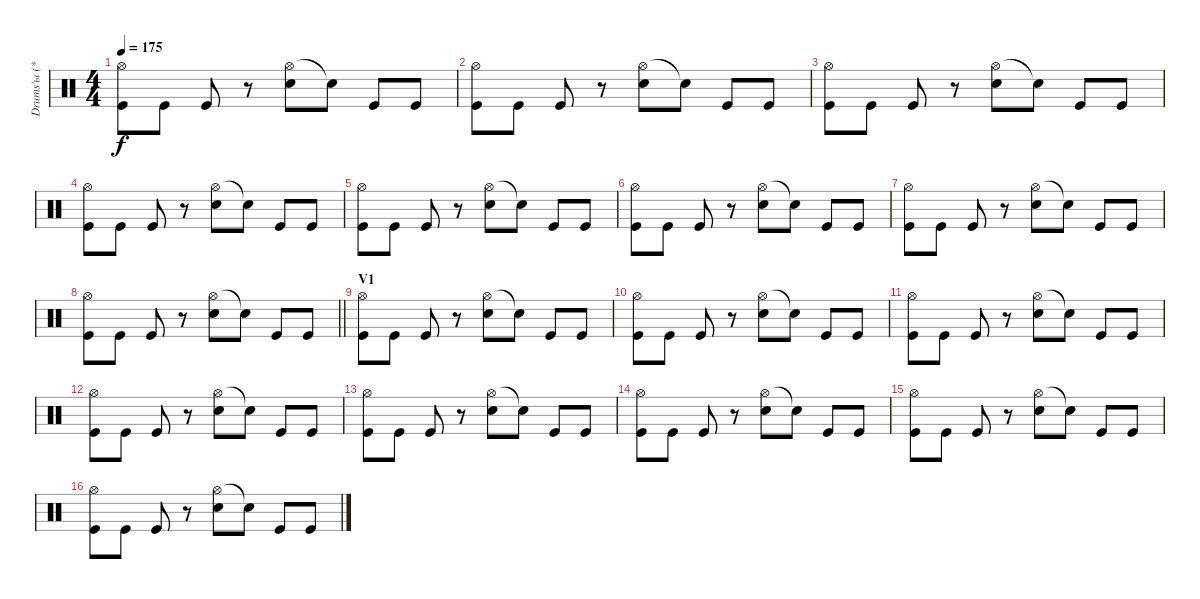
\track ("Drums'ы (***)" "Drums'ы (*") {instrument percussion}
\staff {score}
\articulation defaults
\ts (4 4)
\tempo 175
\clef neutral
\ks c
("Hi-Hat (open)" "Kick (hit)").8{dy f} "Kick (hit)".8 "Kick (hit)".8 r.8 ("Hi-Hat (open)" "Electric Snare (hit)").8 "Snare (hit)"{t}.8 "Kick (hit)".8 "Kick (hit)".8 |
("Hi-Hat (open)" "Kick (hit)").8 "Kick (hit)".8 "Kick (hit)".8 r.8 ("Hi-Hat (open)" "Electric Snare (hit)").8 "Snare (hit)"{t}.8 "Kick (hit)".8 "Kick (hit)".8 |
("Hi-Hat (open)" "Kick (hit)").8 "Kick (hit)".8 "Kick (hit)".8 r.8 ("Hi-Hat (open)" "Electric Snare (hit)").8 "Snare (hit)"{t}.8 "Kick (hit)".8 "Kick (hit)".8 |
("Hi-Hat (open)" "Kick (hit)").8 "Kick (hit)".8 "Kick (hit)".8 r.8 ("Hi-Hat (open)" "Electric Snare (hit)").8 "Snare (hit)"{t}.8 "Kick (hit)".8 "Kick (hit)".8 |
("Hi-Hat (open)" "Kick (hit)").8 "Kick (hit)".8 "Kick (hit)".8 r.8 ("Hi-Hat (open)" "Electric Snare (hit)").8 "Snare (hit)"{t}.8 "Kick (hit)".8 "Kick (hit)".8 |
("Hi-Hat (open)" "Kick (hit)").8 "Kick (hit)".8 "Kick (hit)".8 r.8 ("Hi-Hat (open)" "Electric Snare (hit)").8 "Snare (hit)"{t}.8 "Kick (hit)".8 "Kick (hit)".8 |
("Hi-Hat (open)" "Kick (hit)").8 "Kick (hit)".8 "Kick (hit)".8 r.8 ("Hi-Hat (open)" "Electric Snare (hit)").8 "Snare (hit)"{t}.8 "Kick (hit)".8 "Kick (hit)".8 |
\barLineRight lightlight
("Hi-Hat (open)" "Kick (hit)").8 "Kick (hit)".8 "Kick (hit)".8 r.8 ("Hi-Hat (open)" "Electric Snare (hit)").8 "Snare (hit)"{t}.8 "Kick (hit)".8 "Kick (hit)".8 |
\section ("" "V1")
("Hi-Hat (open)" "Kick (hit)").8 "Kick (hit)".8 "Kick (hit)".8 r.8 ("Hi-Hat (open)" "Electric Snare (hit)").8 "Snare (hit)"{t}.8 "Kick (hit)".8 "Kick (hit)".8 |
("Hi-Hat (open)" "Kick (hit)").8 "Kick (hit)".8 "Kick (hit)".8 r.8 ("Hi-Hat (open)" "Electric Snare (hit)").8 "Snare (hit)"{t}.8 "Kick (hit)".8 "Kick (hit)".8 |
("Hi-Hat (open)" "Kick (hit)").8 "Kick (hit)".8 "Kick (hit)".8 r.8 ("Hi-Hat (open)" "Electric Snare (hit)").8 "Snare (hit)"{t}.8 "Kick (hit)".8 "Kick (hit)".8 |
("Hi-Hat (open)" "Kick (hit)").8 "Kick (hit)".8 "Kick (hit)".8 r.8 ("Hi-Hat (open)" "Electric Snare (hit)").8 "Snare (hit)"{t}.8 "Kick (hit)".8 "Kick (hit)".8 |
("Hi-Hat (open)" "Kick (hit)").8 "Kick (hit)".8 "Kick (hit)".8 r.8 ("Hi-Hat (open)" "Electric Snare (hit)").8 "Snare (hit)"{t}.8 "Kick (hit)".8 "Kick (hit)".8 |
("Hi-Hat (open)" "Kick (hit)").8 "Kick (hit)".8 "Kick (hit)".8 r.8 ("Hi-Hat (open)" "Electric Snare (hit)").8 "Snare (hit)"{t}.8 "Kick (hit)".8 "Kick (hit)".8 |
("Hi-Hat (open)" "Kick (hit)").8 "Kick (hit)".8 "Kick (hit)".8 r.8 ("Hi-Hat (open)" "Electric Snare (hit)").8 "Snare (hit)"{t}.8 "Kick (hit)".8 "Kick (hit)".8 |
("Hi-Hat (open)" "Kick (hit)").8 "Kick (hit)".8 "Kick (hit)".8 r.8 ("Hi-Hat (open)" "Electric Snare (hit)").8 "Snare (hit)"{t}.8 "Kick (hit)".8 "Kick (hit)".8
